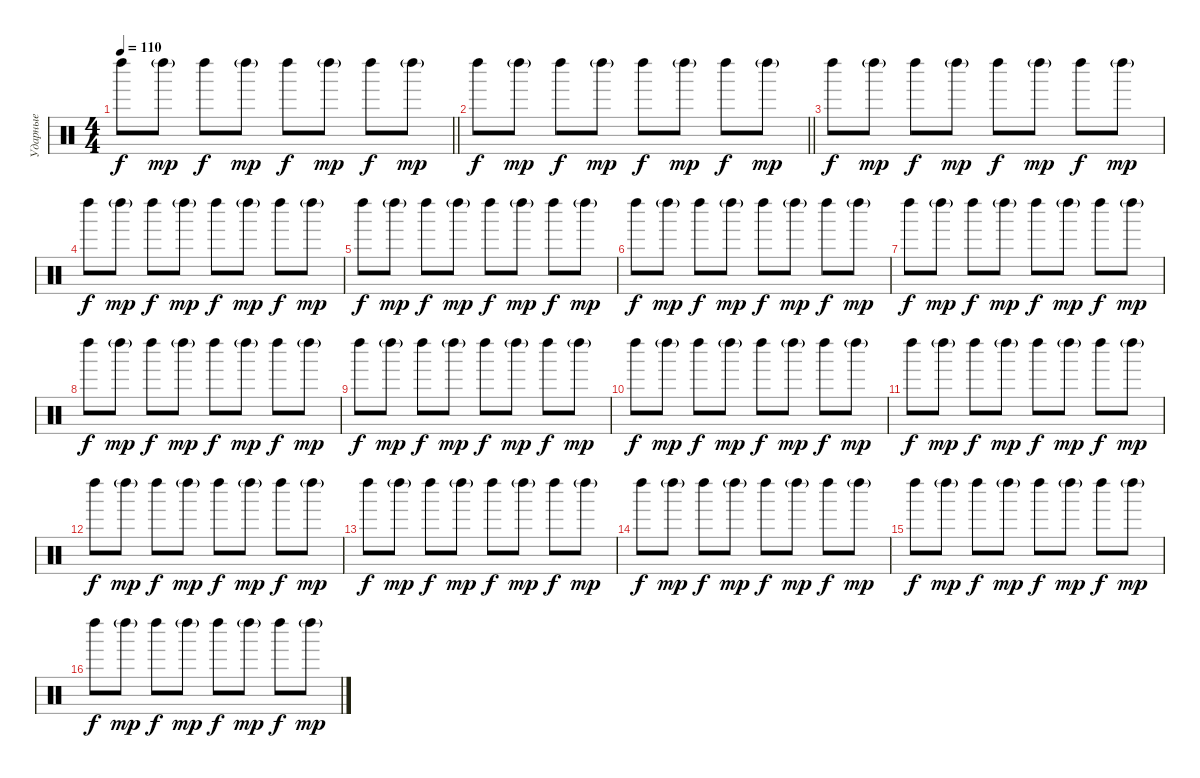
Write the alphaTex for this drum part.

\track ("Ударные" "Ударные") {instrument percussion}
\staff {score}
\articulation defaults
\ts (4 4)
\tempo 110
\clef neutral
\barLineRight lightlight
\ks c "Left Maraca (hit)".8{dy f} "Left Maraca (hit)"{g}.8{dy mp} "Left Maraca (hit)".8{dy f} "Left Maraca (hit)"{g}.8{dy mp} "Left Maraca (hit)".8{dy f} "Left Maraca (hit)"{g}.8{dy mp} "Left Maraca (hit)".8{dy f} "Left Maraca (hit)"{g}.8{dy mp}
|
\barLineRight lightlight "Left Maraca (hit)".8{dy f} "Left Maraca (hit)"{g}.8{dy mp} "Left Maraca (hit)".8{dy f} "Left Maraca (hit)"{g}.8{dy mp} "Left Maraca (hit)".8{dy f} "Left Maraca (hit)"{g}.8{dy mp} "Left Maraca (hit)".8{dy f} "Left Maraca (hit)"{g}.8{dy mp}
|
"Left Maraca (hit)".8{dy f} "Left Maraca (hit)"{g}.8{dy mp} "Left Maraca (hit)".8{dy f} "Left Maraca (hit)"{g}.8{dy mp} "Left Maraca (hit)".8{dy f} "Left Maraca (hit)"{g}.8{dy mp} "Left Maraca (hit)".8{dy f} "Left Maraca (hit)"{g}.8{dy mp} |
"Left Maraca (hit)".8{dy f} "Left Maraca (hit)"{g}.8{dy mp} "Left Maraca (hit)".8{dy f} "Left Maraca (hit)"{g}.8{dy mp} "Left Maraca (hit)".8{dy f} "Left Maraca (hit)"{g}.8{dy mp} "Left Maraca (hit)".8{dy f} "Left Maraca (hit)"{g}.8{dy mp} |
"Left Maraca (hit)".8{dy f} "Left Maraca (hit)"{g}.8{dy mp} "Left Maraca (hit)".8{dy f} "Left Maraca (hit)"{g}.8{dy mp} "Left Maraca (hit)".8{dy f} "Left Maraca (hit)"{g}.8{dy mp} "Left Maraca (hit)".8{dy f} "Left Maraca (hit)"{g}.8{dy mp} |
"Left Maraca (hit)".8{dy f} "Left Maraca (hit)"{g}.8{dy mp} "Left Maraca (hit)".8{dy f} "Left Maraca (hit)"{g}.8{dy mp} "Left Maraca (hit)".8{dy f} "Left Maraca (hit)"{g}.8{dy mp} "Left Maraca (hit)".8{dy f} "Left Maraca (hit)"{g}.8{dy mp} |
"Left Maraca (hit)".8{dy f} "Left Maraca (hit)"{g}.8{dy mp} "Left Maraca (hit)".8{dy f} "Left Maraca (hit)"{g}.8{dy mp} "Left Maraca (hit)".8{dy f} "Left Maraca (hit)"{g}.8{dy mp} "Left Maraca (hit)".8{dy f} "Left Maraca (hit)"{g}.8{dy mp} |
"Left Maraca (hit)".8{dy f} "Left Maraca (hit)"{g}.8{dy mp} "Left Maraca (hit)".8{dy f} "Left Maraca (hit)"{g}.8{dy mp} "Left Maraca (hit)".8{dy f} "Left Maraca (hit)"{g}.8{dy mp} "Left Maraca (hit)".8{dy f} "Left Maraca (hit)"{g}.8{dy mp} |
"Left Maraca (hit)".8{dy f} "Left Maraca (hit)"{g}.8{dy mp} "Left Maraca (hit)".8{dy f} "Left Maraca (hit)"{g}.8{dy mp} "Left Maraca (hit)".8{dy f} "Left Maraca (hit)"{g}.8{dy mp} "Left Maraca (hit)".8{dy f} "Left Maraca (hit)"{g}.8{dy mp} |
"Left Maraca (hit)".8{dy f} "Left Maraca (hit)"{g}.8{dy mp} "Left Maraca (hit)".8{dy f} "Left Maraca (hit)"{g}.8{dy mp} "Left Maraca (hit)".8{dy f} "Left Maraca (hit)"{g}.8{dy mp} "Left Maraca (hit)".8{dy f} "Left Maraca (hit)"{g}.8{dy mp} |
"Left Maraca (hit)".8{dy f} "Left Maraca (hit)"{g}.8{dy mp} "Left Maraca (hit)".8{dy f} "Left Maraca (hit)"{g}.8{dy mp} "Left Maraca (hit)".8{dy f} "Left Maraca (hit)"{g}.8{dy mp} "Left Maraca (hit)".8{dy f} "Left Maraca (hit)"{g}.8{dy mp} |
"Left Maraca (hit)".8{dy f} "Left Maraca (hit)"{g}.8{dy mp} "Left Maraca (hit)".8{dy f} "Left Maraca (hit)"{g}.8{dy mp} "Left Maraca (hit)".8{dy f} "Left Maraca (hit)"{g}.8{dy mp} "Left Maraca (hit)".8{dy f} "Left Maraca (hit)"{g}.8{dy mp} |
"Left Maraca (hit)".8{dy f} "Left Maraca (hit)"{g}.8{dy mp} "Left Maraca (hit)".8{dy f} "Left Maraca (hit)"{g}.8{dy mp} "Left Maraca (hit)".8{dy f} "Left Maraca (hit)"{g}.8{dy mp} "Left Maraca (hit)".8{dy f} "Left Maraca (hit)"{g}.8{dy mp} |
"Left Maraca (hit)".8{dy f} "Left Maraca (hit)"{g}.8{dy mp} "Left Maraca (hit)".8{dy f} "Left Maraca (hit)"{g}.8{dy mp} "Left Maraca (hit)".8{dy f} "Left Maraca (hit)"{g}.8{dy mp} "Left Maraca (hit)".8{dy f} "Left Maraca (hit)"{g}.8{dy mp} |
"Left Maraca (hit)".8{dy f} "Left Maraca (hit)"{g}.8{dy mp} "Left Maraca (hit)".8{dy f} "Left Maraca (hit)"{g}.8{dy mp} "Left Maraca (hit)".8{dy f} "Left Maraca (hit)"{g}.8{dy mp} "Left Maraca (hit)".8{dy f} "Left Maraca (hit)"{g}.8{dy mp} |
"Left Maraca (hit)".8{dy f} "Left Maraca (hit)"{g}.8{dy mp} "Left Maraca (hit)".8{dy f} "Left Maraca (hit)"{g}.8{dy mp} "Left Maraca (hit)".8{dy f} "Left Maraca (hit)"{g}.8{dy mp} "Left Maraca (hit)".8{dy f} "Left Maraca (hit)"{g}.8{dy mp}
